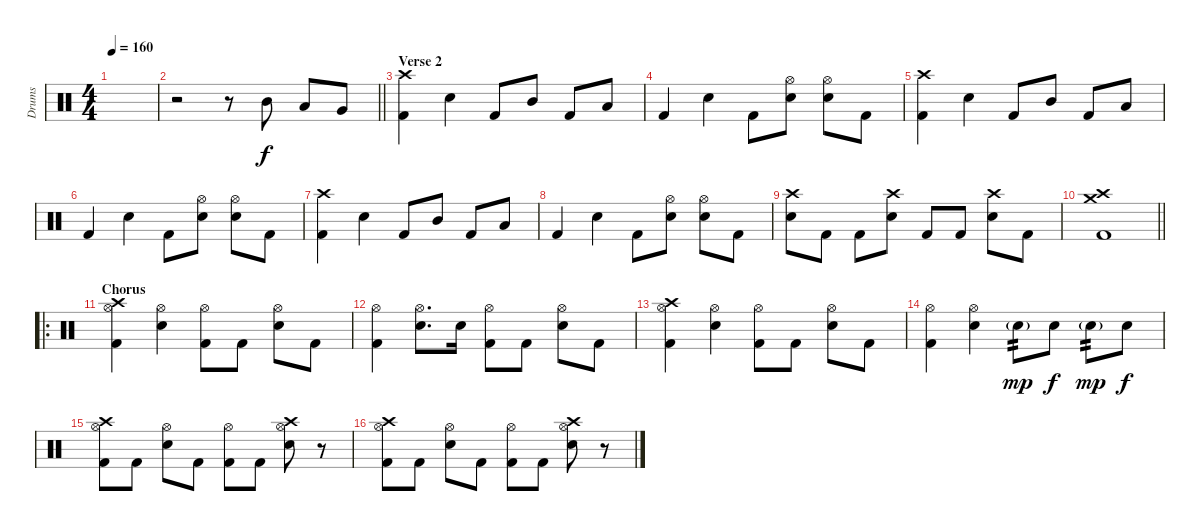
\track ("Drums" "Drums") {instrument percussion}
\staff {score}
\articulation defaults
\ts (4 4)
\tempo 160
\clef neutral
\ks c
|
\barLineRight lightlight
r.2 r.8 "Mid Tom (hit)".8 "Low Tom (hit)".8 "Very Low Tom (hit)".8 |
\section ("" "Verse 2")
("Crash high (hit)" "Kick (hit) 2").4 "Electric Snare (hit)".4 "Kick (hit) 2".8 "Mid Tom (hit)".8 "Kick (hit) 2".8 "Low Tom (hit)".8 |
"Kick (hit) 2".4 "Electric Snare (hit)".4 "Kick (hit) 2".8 ("Hi-Hat (open)" "Electric Snare (hit)").8 ("Hi-Hat (open)" "Electric Snare (hit)").8 "Kick (hit) 2".8 |
("Crash high (hit)" "Kick (hit) 2").4 "Electric Snare (hit)".4 "Kick (hit) 2".8 "Mid Tom (hit)".8 "Kick (hit) 2".8 "Low Tom (hit)".8 |
"Kick (hit) 2".4 "Electric Snare (hit)".4 "Kick (hit) 2".8 ("Hi-Hat (open)" "Electric Snare (hit)").8 ("Hi-Hat (open)" "Electric Snare (hit)").8 "Kick (hit) 2".8 |
("Crash high (hit)" "Kick (hit) 2").4 "Electric Snare (hit)".4 "Kick (hit) 2".8 "Mid Tom (hit)".8 "Kick (hit) 2".8 "Low Tom (hit)".8 |
"Kick (hit) 2".4 "Electric Snare (hit)".4 "Kick (hit) 2".8 ("Hi-Hat (open)" "Electric Snare (hit)").8 ("Hi-Hat (open)" "Electric Snare (hit)").8 "Kick (hit) 2".8 |
("Crash high (hit)" "Electric Snare (hit)").8 "Kick (hit) 2".8 "Kick (hit) 2".8 ("Crash high (hit)" "Electric Snare (hit)").8 "Kick (hit) 2".8 "Kick (hit) 2".8 ("Crash high (hit)" "Electric Snare (hit)").8 "Kick (hit) 2".8 |
\barLineRight lightlight
("Crash high (hit)" "Crash medium (hit)" "Kick (hit) 2").1 |
\ro
\section ("" "Chorus")
("Crash high (hit)" "Hi-Hat (open)" "Kick (hit) 2").4 ("Hi-Hat (open)" "Electric Snare (hit)").4 ("Hi-Hat (open)" "Kick (hit) 2").8 "Kick (hit) 2".8 ("Hi-Hat (open)" "Electric Snare (hit)").8 "Kick (hit) 2".8 |
("Hi-Hat (open)" "Kick (hit) 2").4 ("Hi-Hat (open)" "Electric Snare (hit)").8{d} "Electric Snare (hit)".16 ("Hi-Hat (open)" "Kick (hit) 2").8 "Kick (hit) 2".8 ("Hi-Hat (open)" "Electric Snare (hit)").8 "Kick (hit) 2".8 |
("Crash high (hit)" "Hi-Hat (open)" "Kick (hit) 2").4 ("Hi-Hat (open)" "Electric Snare (hit)").4 ("Hi-Hat (open)" "Kick (hit) 2").8 "Kick (hit) 2".8 ("Hi-Hat (open)" "Electric Snare (hit)").8 "Kick (hit) 2".8 |
("Hi-Hat (open)" "Kick (hit) 2").4 ("Hi-Hat (open)" "Electric Snare (hit)").4 "Electric Snare (hit)"{g}.8{tp 2 dy mp} "Electric Snare (hit)".8{dy f} "Electric Snare (hit)"{g}.8{tp 2 dy mp} "Electric Snare (hit)".8{dy f} |
("Crash high (hit)" "Hi-Hat (open)" "Kick (hit) 2").8 "Kick (hit) 2".8 ("Hi-Hat (open)" "Electric Snare (hit)").8 "Kick (hit) 2".8 ("Hi-Hat (open)" "Kick (hit) 2").8 "Kick (hit) 2".8 ("Crash high (hit)" "Hi-Hat (open)" "Electric Snare (hit)").8 r.8 |
("Crash high (hit)" "Hi-Hat (open)" "Kick (hit) 2").8 "Kick (hit) 2".8 ("Hi-Hat (open)" "Electric Snare (hit)").8 "Kick (hit) 2".8 ("Hi-Hat (open)" "Kick (hit) 2").8 "Kick (hit) 2".8 ("Crash high (hit)" "Hi-Hat (open)" "Electric Snare (hit)").8 r.8
